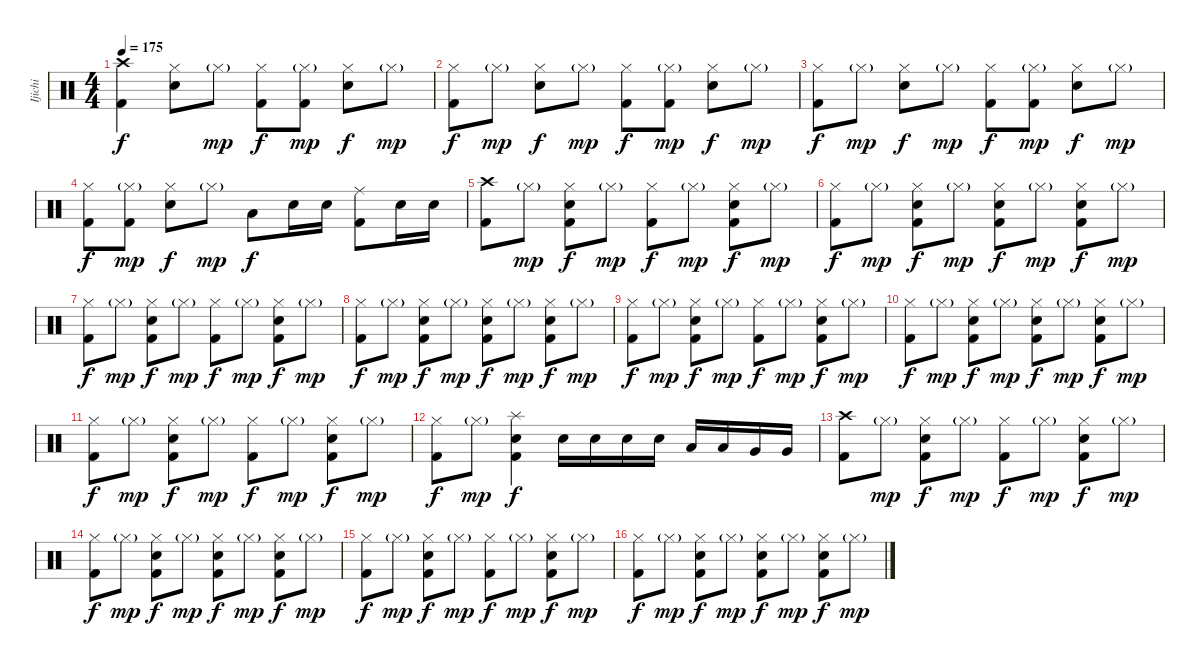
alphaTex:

\track ("Ijichi" "Ijichi") {instrument percussion}
\staff {score}
\articulation defaults
\ts (4 4)
\tempo 175
\clef neutral
\ks c
("Crash high (hit)" "Kick (hit) 2").4{dy f} ("Hi-Hat (closed)" "Electric Snare (hit)").8 "Hi-Hat (closed)"{g}.8{dy mp} ("Hi-Hat (closed)" "Kick (hit) 2").8{dy f} ("Hi-Hat (closed)"{g} "Kick (hit) 2").8{dy mp} ("Hi-Hat (closed)" "Electric Snare (hit)").8{dy f} "Hi-Hat (closed)"{g}.8{dy mp} |
("Hi-Hat (closed)" "Kick (hit) 2").8{dy f} "Hi-Hat (closed)"{g}.8{dy mp} ("Hi-Hat (closed)" "Electric Snare (hit)").8{dy f} "Hi-Hat (closed)"{g}.8{dy mp} ("Hi-Hat (closed)" "Kick (hit) 2").8{dy f} ("Hi-Hat (closed)"{g} "Kick (hit) 2").8{dy mp} ("Hi-Hat (closed)" "Electric Snare (hit)").8{dy f} "Hi-Hat (closed)"{g}.8{dy mp} |
("Hi-Hat (closed)" "Kick (hit) 2").8{dy f} "Hi-Hat (closed)"{g}.8{dy mp} ("Hi-Hat (closed)" "Electric Snare (hit)").8{dy f} "Hi-Hat (closed)"{g}.8{dy mp} ("Hi-Hat (closed)" "Kick (hit) 2").8{dy f} ("Hi-Hat (closed)"{g} "Kick (hit) 2").8{dy mp} ("Hi-Hat (closed)" "Electric Snare (hit)").8{dy f} "Hi-Hat (closed)"{g}.8{dy mp} |
("Hi-Hat (closed)" "Kick (hit) 2").8{dy f} ("Hi-Hat (closed)"{g} "Kick (hit) 2").8{dy mp} ("Hi-Hat (closed)" "Electric Snare (hit)").8{dy f} "Hi-Hat (closed)"{g}.8{dy mp} "Low Floor Tom (hit)".8{dy f} "Electric Snare (hit)".16 "Electric Snare (hit)".16 ("Ride (middle)" "Kick (hit) 2").8 "Electric Snare (hit)".16 "Electric Snare (hit)".16 |
("Crash high (hit)" "Kick (hit) 2").8 "Hi-Hat (closed)"{g}.8{dy mp} ("Hi-Hat (closed)" "Electric Snare (hit)" "Kick (hit) 2").8{dy f} "Hi-Hat (closed)"{g}.8{dy mp} ("Hi-Hat (closed)" "Kick (hit) 2").8{dy f} "Hi-Hat (closed)"{g}.8{dy mp} ("Hi-Hat (closed)" "Electric Snare (hit)" "Kick (hit) 2").8{dy f} "Hi-Hat (closed)"{g}.8{dy mp} |
("Hi-Hat (closed)" "Kick (hit) 2").8{dy f} "Hi-Hat (closed)"{g}.8{dy mp} ("Hi-Hat (closed)" "Electric Snare (hit)" "Kick (hit) 2").8{dy f} "Hi-Hat (closed)"{g}.8{dy mp} ("Hi-Hat (closed)" "Electric Snare (hit)" "Kick (hit) 2").8{dy f} "Hi-Hat (closed)"{g}.8{dy mp} ("Hi-Hat (closed)" "Electric Snare (hit)" "Kick (hit) 2").8{dy f} "Hi-Hat (closed)"{g}.8{dy mp} |
("Hi-Hat (closed)" "Kick (hit) 2").8{dy f} "Hi-Hat (closed)"{g}.8{dy mp} ("Hi-Hat (closed)" "Electric Snare (hit)" "Kick (hit) 2").8{dy f} "Hi-Hat (closed)"{g}.8{dy mp} ("Hi-Hat (closed)" "Kick (hit) 2").8{dy f} "Hi-Hat (closed)"{g}.8{dy mp} ("Hi-Hat (closed)" "Electric Snare (hit)" "Kick (hit) 2").8{dy f} "Hi-Hat (closed)"{g}.8{dy mp} |
("Hi-Hat (closed)" "Kick (hit) 2").8{dy f} "Hi-Hat (closed)"{g}.8{dy mp} ("Hi-Hat (closed)" "Electric Snare (hit)" "Kick (hit) 2").8{dy f} "Hi-Hat (closed)"{g}.8{dy mp} ("Hi-Hat (closed)" "Electric Snare (hit)" "Kick (hit) 2").8{dy f} "Hi-Hat (closed)"{g}.8{dy mp} ("Hi-Hat (closed)" "Electric Snare (hit)" "Kick (hit) 2").8{dy f} "Hi-Hat (closed)"{g}.8{dy mp} |
("Hi-Hat (closed)" "Kick (hit) 2").8{dy f} "Hi-Hat (closed)"{g}.8{dy mp} ("Hi-Hat (closed)" "Electric Snare (hit)" "Kick (hit) 2").8{dy f} "Hi-Hat (closed)"{g}.8{dy mp} ("Hi-Hat (closed)" "Kick (hit) 2").8{dy f} "Hi-Hat (closed)"{g}.8{dy mp} ("Hi-Hat (closed)" "Electric Snare (hit)" "Kick (hit) 2").8{dy f} "Hi-Hat (closed)"{g}.8{dy mp} |
("Hi-Hat (closed)" "Kick (hit) 2").8{dy f} "Hi-Hat (closed)"{g}.8{dy mp} ("Hi-Hat (closed)" "Electric Snare (hit)" "Kick (hit) 2").8{dy f} "Hi-Hat (closed)"{g}.8{dy mp} ("Hi-Hat (closed)" "Electric Snare (hit)" "Kick (hit) 2").8{dy f} "Hi-Hat (closed)"{g}.8{dy mp} ("Hi-Hat (closed)" "Electric Snare (hit)" "Kick (hit) 2").8{dy f} "Hi-Hat (closed)"{g}.8{dy mp} |
("Hi-Hat (closed)" "Kick (hit) 2").8{dy f} "Hi-Hat (closed)"{g}.8{dy mp} ("Hi-Hat (closed)" "Electric Snare (hit)" "Kick (hit) 2").8{dy f} "Hi-Hat (closed)"{g}.8{dy mp} ("Hi-Hat (closed)" "Kick (hit) 2").8{dy f} "Hi-Hat (closed)"{g}.8{dy mp} ("Hi-Hat (closed)" "Electric Snare (hit)" "Kick (hit) 2").8{dy f} "Hi-Hat (closed)"{g}.8{dy mp} |
("Hi-Hat (closed)" "Kick (hit) 2").8{dy f} "Hi-Hat (closed)"{g}.8{dy mp} ("Splash (hit)" "Electric Snare (hit)" "Kick (hit) 2").4{dy f} "Electric Snare (hit)".16 "Electric Snare (hit)".16 "Electric Snare (hit)".16 "Electric Snare (hit)".16 "Low Tom (hit)".16 "Low Tom (hit)".16 "Very Low Tom (hit)".16 "Very Low Tom (hit)".16 |
("Crash high (hit)" "Kick (hit) 2").8 "Hi-Hat (closed)"{g}.8{dy mp} ("Hi-Hat (closed)" "Electric Snare (hit)" "Kick (hit) 2").8{dy f} "Hi-Hat (closed)"{g}.8{dy mp} ("Hi-Hat (closed)" "Kick (hit) 2").8{dy f} "Hi-Hat (closed)"{g}.8{dy mp} ("Hi-Hat (closed)" "Electric Snare (hit)" "Kick (hit) 2").8{dy f} "Hi-Hat (closed)"{g}.8{dy mp} |
("Hi-Hat (closed)" "Kick (hit) 2").8{dy f} "Hi-Hat (closed)"{g}.8{dy mp} ("Hi-Hat (closed)" "Electric Snare (hit)" "Kick (hit) 2").8{dy f} "Hi-Hat (closed)"{g}.8{dy mp} ("Hi-Hat (closed)" "Electric Snare (hit)" "Kick (hit) 2").8{dy f} "Hi-Hat (closed)"{g}.8{dy mp} ("Hi-Hat (closed)" "Electric Snare (hit)" "Kick (hit) 2").8{dy f} "Hi-Hat (closed)"{g}.8{dy mp} |
("Hi-Hat (closed)" "Kick (hit) 2").8{dy f} "Hi-Hat (closed)"{g}.8{dy mp} ("Hi-Hat (closed)" "Electric Snare (hit)" "Kick (hit) 2").8{dy f} "Hi-Hat (closed)"{g}.8{dy mp} ("Hi-Hat (closed)" "Kick (hit) 2").8{dy f} "Hi-Hat (closed)"{g}.8{dy mp} ("Hi-Hat (closed)" "Electric Snare (hit)" "Kick (hit) 2").8{dy f} "Hi-Hat (closed)"{g}.8{dy mp} |
("Hi-Hat (closed)" "Kick (hit) 2").8{dy f} "Hi-Hat (closed)"{g}.8{dy mp} ("Hi-Hat (closed)" "Electric Snare (hit)" "Kick (hit) 2").8{dy f} "Hi-Hat (closed)"{g}.8{dy mp} ("Hi-Hat (closed)" "Electric Snare (hit)" "Kick (hit) 2").8{dy f} "Hi-Hat (closed)"{g}.8{dy mp} ("Hi-Hat (closed)" "Electric Snare (hit)" "Kick (hit) 2").8{dy f} "Hi-Hat (closed)"{g}.8{dy mp}
